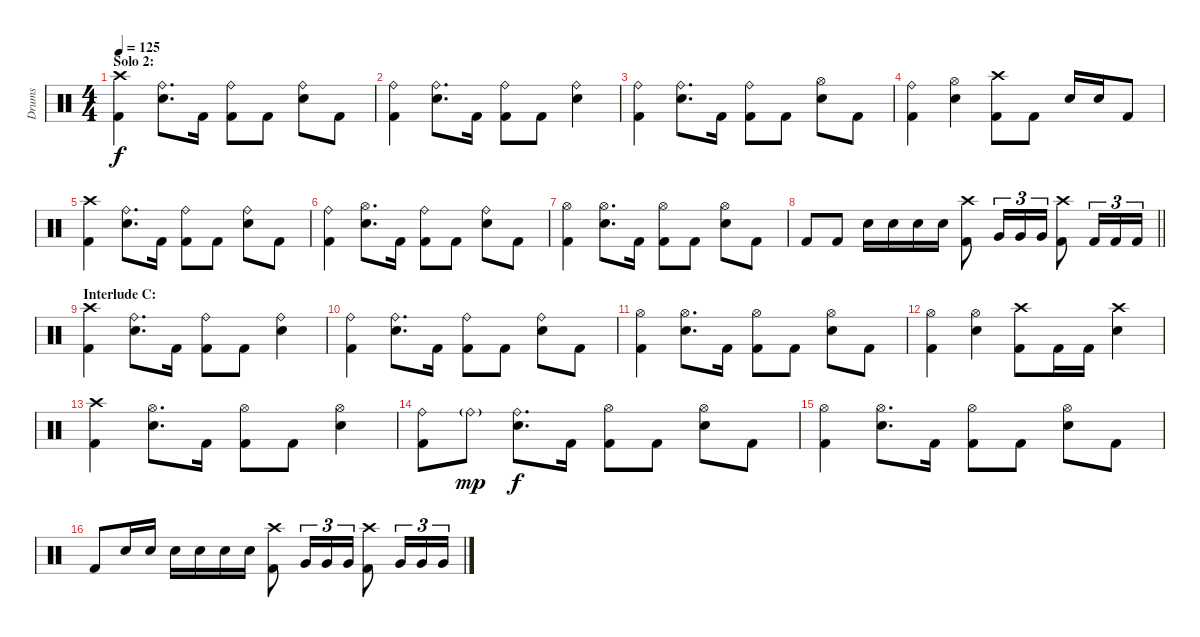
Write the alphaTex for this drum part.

\track ("Drums" "Drums") {instrument percussion}
\staff {score}
\articulation defaults
\ts (4 4)
\section ("" "Solo 2:")
\tempo 125
\clef neutral
\ks c
("Crash high (hit)" "Kick (hit) 2").4{dy f} ("Ride (bell)" "Electric Snare (hit)").8{d} "Kick (hit) 2".16 ("Ride (bell)" "Kick (hit) 2").8 "Kick (hit) 2".8 ("Ride (bell)" "Electric Snare (hit)").8 "Kick (hit) 2".8 |
("Ride (bell)" "Kick (hit) 2").4 ("Ride (bell)" "Electric Snare (hit)").8{d} "Kick (hit) 2".16 ("Ride (bell)" "Kick (hit) 2").8 "Kick (hit) 2".8 ("Ride (bell)" "Electric Snare (hit)").4 |
("Ride (bell)" "Kick (hit) 2").4 ("Ride (bell)" "Electric Snare (hit)").8{d} "Kick (hit) 2".16 ("Ride (bell)" "Kick (hit) 2").8 "Kick (hit) 2".8 ("Hi-Hat (open)" "Electric Snare (hit)").8 "Kick (hit) 2".8 |
("Ride (bell)" "Kick (hit) 2").4 ("Hi-Hat (open)" "Electric Snare (hit)").4 ("Crash high (hit)" "Kick (hit) 2").8 "Kick (hit) 2".8 "Electric Snare (hit)".16 "Electric Snare (hit)".16 "Kick (hit) 2".8 |
("Crash high (hit)" "Kick (hit) 2").4 ("Ride (bell)" "Electric Snare (hit)").8{d} "Kick (hit) 2".16 ("Ride (bell)" "Kick (hit) 2").8 "Kick (hit) 2".8 ("Ride (bell)" "Electric Snare (hit)").8 "Kick (hit) 2".8 |
("Ride (bell)" "Kick (hit) 2").4 ("Hi-Hat (open)" "Electric Snare (hit)").8{d} "Kick (hit) 2".16 ("Ride (bell)" "Kick (hit) 2").8 "Kick (hit) 2".8 ("Ride (bell)" "Electric Snare (hit)").8 "Kick (hit) 2".8 |
("Hi-Hat (open)" "Kick (hit) 2").4 ("Hi-Hat (open)" "Electric Snare (hit)").8{d} "Kick (hit) 2".16 ("Hi-Hat (open)" "Kick (hit) 2").8 "Kick (hit) 2".8 ("Hi-Hat (open)" "Electric Snare (hit)").8 "Kick (hit) 2".8 |
\barLineRight lightlight "Kick (hit) 2".8 "Kick (hit) 2".8 "Electric Snare (hit)".16 "Electric Snare (hit)".16 "Electric Snare (hit)".16 "Electric Snare (hit)".16
("Crash high (hit)" "Kick (hit) 2").8 "Very Low Tom (hit)".16{tu (3 2)} "Very Low Tom (hit)".16{tu (3 2)} "Very Low Tom (hit)".16{tu (3 2)} ("Crash high (hit)" "Kick (hit) 2").8 "Kick (hit) 2".16{tu (3 2)} "Kick (hit) 2".16{tu (3 2)} "Kick (hit) 2".16{tu (3 2)} |
\section ("" "Interlude C:")
("Crash high (hit)" "Kick (hit) 2").4 ("Ride (bell)" "Electric Snare (hit)").8{d} "Kick (hit) 2".16 ("Ride (bell)" "Kick (hit) 2").8 "Kick (hit) 2".8 ("Ride (bell)" "Electric Snare (hit)").4 |
("Ride (bell)" "Kick (hit) 2").4 ("Ride (bell)" "Electric Snare (hit)").8{d} "Kick (hit) 2".16 ("Ride (bell)" "Kick (hit) 2").8 "Kick (hit) 2".8 ("Ride (bell)" "Electric Snare (hit)").8 "Kick (hit) 2".8 |
("Hi-Hat (open)" "Kick (hit) 2").4 ("Hi-Hat (open)" "Electric Snare (hit)").8{d} "Kick (hit) 2".16 ("Hi-Hat (open)" "Kick (hit) 2").8 "Kick (hit) 2".8 ("Hi-Hat (open)" "Electric Snare (hit)").8 "Kick (hit) 2".8 |
("Hi-Hat (open)" "Kick (hit) 2").4 ("Hi-Hat (open)" "Electric Snare (hit)").4 ("Crash high (hit)" "Kick (hit) 2").8 "Kick (hit) 2".16 "Kick (hit) 2".16 ("Crash high (hit)" "Electric Snare (hit)").4 |
("Crash high (hit)" "Kick (hit) 2").4 ("Hi-Hat (open)" "Electric Snare (hit)").8{d} "Kick (hit) 2".16 ("Hi-Hat (open)" "Kick (hit) 2").8 "Kick (hit) 2".8 ("Hi-Hat (open)" "Electric Snare (hit)").4 |
("Ride (bell)" "Kick (hit) 2").8 "Ride (bell)"{g}.8{dy mp} ("Ride (bell)" "Electric Snare (hit)").8{d dy f} "Kick (hit) 2".16 ("Hi-Hat (open)" "Kick (hit) 2").8 "Kick (hit) 2".8 ("Hi-Hat (open)" "Electric Snare (hit)").8 "Kick (hit) 2".8 |
("Hi-Hat (open)" "Kick (hit) 2").4 ("Hi-Hat (open)" "Electric Snare (hit)").8{d} "Kick (hit) 2".16 ("Hi-Hat (open)" "Kick (hit) 2").8 "Kick (hit) 2".8 ("Hi-Hat (open)" "Electric Snare (hit)").8 "Kick (hit) 2".8 |
"Kick (hit) 2".8 "Electric Snare (hit)".16 "Electric Snare (hit)".16 "Electric Snare (hit)".16 "Electric Snare (hit)".16 "Electric Snare (hit)".16 "Electric Snare (hit)".16 ("Crash high (hit)" "Kick (hit) 2").8 "Very Low Tom (hit)".16{tu (3 2)} "Very Low Tom (hit)".16{tu (3 2)} "Very Low Tom (hit)".16{tu (3 2)} ("Crash high (hit)" "Kick (hit) 2").8 "Very Low Tom (hit)".16{tu (3 2)} "Very Low Tom (hit)".16{tu (3 2)} "Very Low Tom (hit)".16{tu (3 2)}
